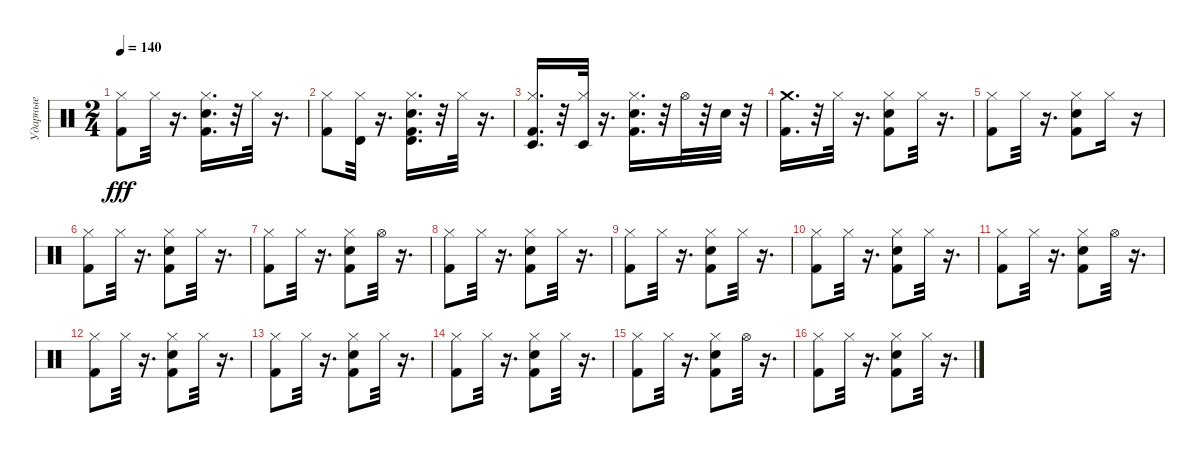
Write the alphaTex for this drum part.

\track ("Ударные" "Ударные") {instrument percussion}
\staff {score}
\articulation defaults
\ts (2 4)
\tempo 140
\clef neutral
\ks c
("Kick (hit) 2" "Hi-Hat (closed)").8{dy fff} "Hi-Hat (closed)".32 r.16{d} ("Hi-Hat (closed)" "Snare (hit) 2" "Kick (hit) 2").16{d} r.32 "Hi-Hat (closed)".32 r.16{d} |
("Kick (hit) 2" "Hi-Hat (closed)").8 ("Timbale high (hit)" "Hi-Hat (closed)").32 r.16{d} ("Hi-Hat (closed)" "Kick (hit) 2" "Snare (hit) 2" "Timbale high (hit)").16{d} r.32 "Hi-Hat (closed)".32 r.16{d} |
("Kick (hit) 2" "Timbale low (hit)" "Hi-Hat (closed)").16{d} r.32 ("Timbale low (hit)" "Hi-Hat (closed)").32 r.16{d} ("Snare (hit) 2" "Kick (hit) 2" "Hi-Hat (closed)").16{d} r.32 "Hi-Hat (open)".32 r.32 "Snare (hit) 2".32 r.32 |
("Kick (hit) 2" "Crash medium (hit)").16{d} r.32 "Hi-Hat (closed)".32 r.16{d} ("Kick (hit) 2" "Snare (hit) 2" "Hi-Hat (closed)").8 "Hi-Hat (closed)".32 r.16{d} |
("Kick (hit) 2" "Hi-Hat (closed)").8 "Hi-Hat (closed)".32 r.16{d} ("Snare (hit) 2" "Kick (hit) 2" "Hi-Hat (closed)").8 "Hi-Hat (closed)".16 r.16 |
("Kick (hit) 2" "Hi-Hat (closed)").8 "Hi-Hat (closed)".32 r.16{d} ("Hi-Hat (closed)" "Snare (hit) 2" "Kick (hit) 2").8 "Hi-Hat (closed)".32 r.16{d} |
("Kick (hit) 2" "Hi-Hat (closed)").8 "Hi-Hat (closed)".32 r.16{d} ("Kick (hit) 2" "Snare (hit) 2" "Hi-Hat (closed)").8 "Hi-Hat (open)".32 r.16{d} |
("Kick (hit) 2" "Hi-Hat (closed)").8 "Hi-Hat (closed)".32 r.16{d} ("Kick (hit) 2" "Hi-Hat (closed)" "Snare (hit) 2").8 "Hi-Hat (closed)".32 r.16{d} |
("Kick (hit) 2" "Hi-Hat (closed)").8 "Hi-Hat (closed)".32 r.16{d} ("Snare (hit) 2" "Kick (hit) 2" "Hi-Hat (closed)").8 "Hi-Hat (closed)".32 r.16{d} |
("Kick (hit) 2" "Hi-Hat (closed)").8 "Hi-Hat (closed)".32 r.16{d} ("Snare (hit) 2" "Kick (hit) 2" "Hi-Hat (closed)").8 "Hi-Hat (closed)".32 r.16{d} |
("Kick (hit) 2" "Hi-Hat (closed)").8 "Hi-Hat (closed)".32 r.16{d} ("Snare (hit) 2" "Kick (hit) 2" "Hi-Hat (closed)").8 "Hi-Hat (open)".32 r.16{d} |
("Kick (hit) 2" "Hi-Hat (closed)").8 "Hi-Hat (closed)".32 r.16{d} ("Snare (hit) 2" "Kick (hit) 2" "Hi-Hat (closed)").8 "Hi-Hat (closed)".32 r.16{d} |
("Kick (hit) 2" "Hi-Hat (closed)").8 "Hi-Hat (closed)".32 r.16{d} ("Hi-Hat (closed)" "Snare (hit) 2" "Kick (hit) 2").8 "Hi-Hat (closed)".32 r.16{d} |
("Kick (hit) 2" "Hi-Hat (closed)").8 "Hi-Hat (closed)".32 r.16{d} ("Hi-Hat (closed)" "Snare (hit) 2" "Kick (hit) 2").8 "Hi-Hat (closed)".32 r.16{d} |
("Kick (hit) 2" "Hi-Hat (closed)").8 "Hi-Hat (closed)".32 r.16{d} ("Snare (hit) 2" "Kick (hit) 2" "Hi-Hat (closed)").8 "Hi-Hat (open)".32 r.16{d} |
("Kick (hit) 2" "Hi-Hat (closed)").8 "Hi-Hat (closed)".32 r.16{d} ("Snare (hit) 2" "Kick (hit) 2" "Hi-Hat (closed)").8 "Hi-Hat (closed)".32 r.16{d}
